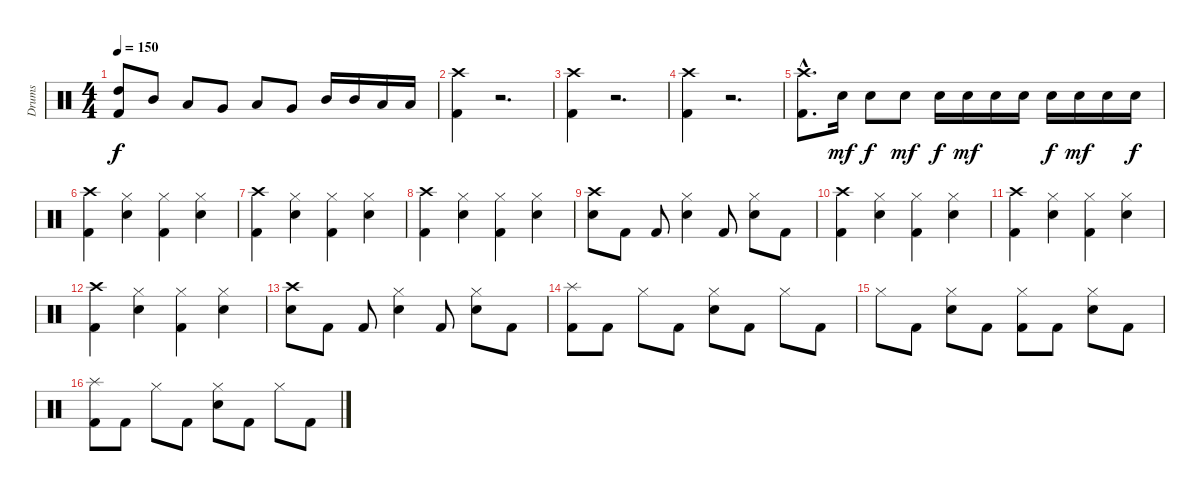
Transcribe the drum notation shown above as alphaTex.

\track ("Drums" "Drums") {instrument percussion}
\staff {score}
\articulation defaults
\ts (4 4)
\tempo 150
\clef neutral
\ks c
("Kick (hit) 2" "High Tom (hit)").8{dy f} "Mid Tom (hit)".8 "Low Tom (hit)".8 "Very Low Tom (hit)".8 "Low Tom (hit)".8 "Very Low Tom (hit)".8 "Mid Tom (hit)".16 "Mid Tom (hit)".16 "Low Tom (hit)".16 "Low Tom (hit)".16 |
("Crash high (hit)" "Kick (hit) 2").4 r.2{d} |
("Crash high (hit)" "Kick (hit) 2").4 r.2{d} |
("Kick (hit) 2" "Crash high (hit)").4 r.2{d} |
("Crash high (hit)" "Kick (hit) 2"{hac}).8{d} "Snare (hit) 2".16{dy mf} "Snare (hit) 2".8{dy f} "Snare (hit) 2".8{dy mf} "Snare (hit) 2".16{dy f} "Snare (hit) 2".16{dy mf} "Snare (hit) 2".16 "Snare (hit) 2".16 "Snare (hit) 2".16{dy f} "Snare (hit) 2".16{dy mf} "Snare (hit) 2".16 "Snare (hit) 2".16{dy f} |
("Crash high (hit)" "Kick (hit) 2").4 ("Hi-Hat (closed)" "Snare (hit) 2").4 ("Hi-Hat (closed)" "Kick (hit) 2").4 ("Hi-Hat (closed)" "Snare (hit) 2").4 |
("Crash high (hit)" "Kick (hit) 2").4 ("Hi-Hat (closed)" "Snare (hit) 2").4 ("Kick (hit) 2" "Hi-Hat (closed)").4 ("Hi-Hat (closed)" "Snare (hit) 2").4 |
("Crash high (hit)" "Kick (hit) 2").4 ("Hi-Hat (closed)" "Snare (hit) 2").4 ("Hi-Hat (closed)" "Kick (hit) 2").4 ("Snare (hit) 2" "Hi-Hat (closed)").4 |
("Snare (hit) 2" "Crash high (hit)").8 "Kick (hit) 2".8 "Kick (hit) 2".8 ("Hi-Hat (closed)" "Snare (hit) 2").4 "Kick (hit) 2".8 ("Hi-Hat (closed)" "Snare (hit) 2").8 "Kick (hit) 2".8 |
("Crash high (hit)" "Kick (hit) 2").4 ("Hi-Hat (closed)" "Snare (hit) 2").4 ("Kick (hit) 2" "Hi-Hat (closed)").4 ("Snare (hit) 2" "Hi-Hat (closed)").4 |
("Kick (hit) 2" "Crash high (hit)").4 ("Hi-Hat (closed)" "Snare (hit) 2").4 ("Hi-Hat (closed)" "Kick (hit) 2").4 ("Hi-Hat (closed)" "Snare (hit) 2").4 |
("Kick (hit) 2" "Crash high (hit)").4 ("Hi-Hat (closed)" "Snare (hit) 2").4 ("Kick (hit) 2" "Hi-Hat (closed)").4 ("Hi-Hat (closed)" "Snare (hit) 2").4 |
("Snare (hit) 2" "Crash high (hit)").8 "Kick (hit) 2".8 "Kick (hit) 2".8 ("Hi-Hat (closed)" "Snare (hit) 2").4 "Kick (hit) 2".8 ("Hi-Hat (closed)" "Snare (hit) 2").8 "Kick (hit) 2".8 |
("Splash (hit)" "Kick (hit) 2").8 "Kick (hit) 2".8 "Hi-Hat (closed)".8 "Kick (hit) 2".8 ("Hi-Hat (closed)" "Snare (hit) 2").8 "Kick (hit) 2".8 "Hi-Hat (closed)".8 "Kick (hit) 2".8 |
"Hi-Hat (closed)".8 "Kick (hit) 2".8 ("Hi-Hat (closed)" "Snare (hit) 2").8 "Kick (hit) 2".8 ("Hi-Hat (closed)" "Kick (hit) 2").8 "Kick (hit) 2".8 ("Hi-Hat (closed)" "Snare (hit) 2").8 "Kick (hit) 2".8 |
("Kick (hit) 2" "Splash (hit)").8 "Kick (hit) 2".8 "Hi-Hat (closed)".8 "Kick (hit) 2".8 ("Hi-Hat (closed)" "Snare (hit) 2").8 "Kick (hit) 2".8 "Hi-Hat (closed)".8 "Kick (hit) 2".8
